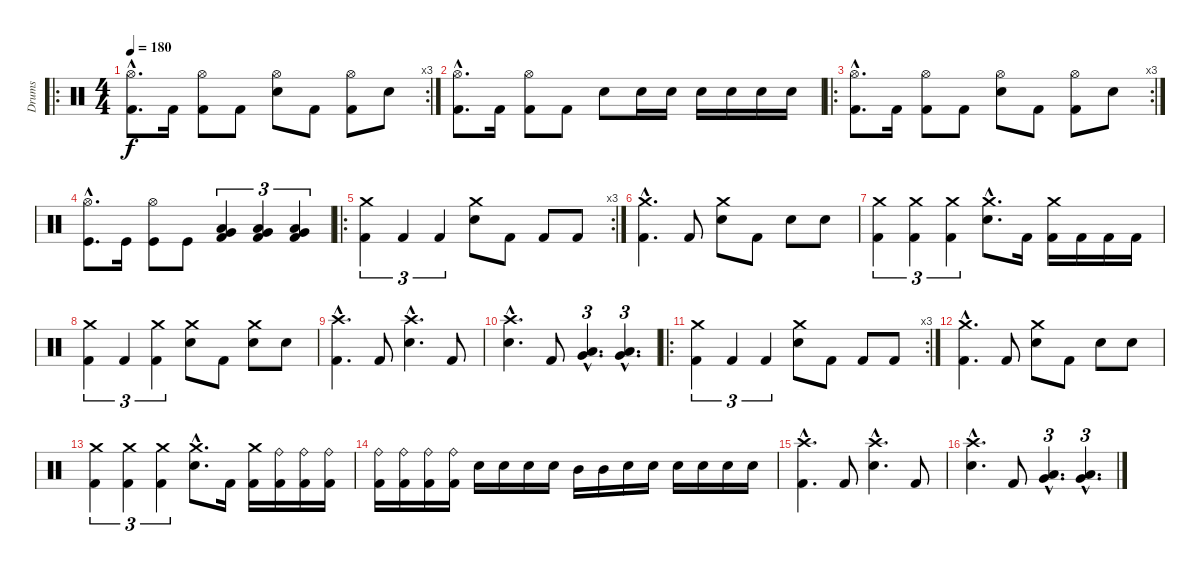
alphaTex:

\track ("Drums" "Drums") {instrument percussion}
\staff {score}
\articulation defaults
\ro
\rc 3
\ts (4 4)
\tempo 180
\clef neutral
\ks c
("Hi-Hat (open)"{hac} "Kick (hit) 2"{hac}).8{d dy f} "Kick (hit) 2".16 ("Hi-Hat (open)" "Kick (hit) 2").8 "Kick (hit) 2".8 ("Hi-Hat (open)" "Electric Snare (hit)").8 "Kick (hit) 2".8 ("Hi-Hat (open)" "Kick (hit) 2").8 "Electric Snare (hit)".8 |
("Hi-Hat (open)"{hac} "Kick (hit) 2"{hac}).8{d} "Kick (hit) 2".16 ("Hi-Hat (open)" "Kick (hit) 2").8 "Kick (hit) 2".8 "Electric Snare (hit)".8 "Electric Snare (hit)".16 "Electric Snare (hit)".16 "Electric Snare (hit)".16 "Electric Snare (hit)".16 "Electric Snare (hit)".16 "Electric Snare (hit)".16 |
\ro
\rc 3
("Hi-Hat (open)"{hac} "Kick (hit) 2"{hac}).8{d} "Kick (hit) 2".16 ("Hi-Hat (open)" "Kick (hit) 2").8 "Kick (hit) 2".8 ("Hi-Hat (open)" "Electric Snare (hit)").8 "Kick (hit) 2".8 ("Hi-Hat (open)" "Kick (hit) 2").8 "Electric Snare (hit)".8 |
("Hi-Hat (open)"{hac} "Kick (hit)"{hac}).8{d} "Kick (hit)".16 ("Hi-Hat (open)" "Kick (hit)").8 "Kick (hit)".8 ("Kick (hit) 2" "Very Low Tom (hit)" "Low Floor Tom (hit)").4{tu (3 2)} ("Kick (hit) 2" "Very Low Tom (hit)" "Low Floor Tom (hit)").4{tu (3 2)} ("Kick (hit) 2" "Very Low Tom (hit)" "Low Floor Tom (hit)").4{tu (3 2)} |
\ro
\rc 3
("Crash medium (hit)" "Kick (hit) 2").4{tu (3 2)} "Kick (hit) 2".4{tu (3 2)} "Kick (hit) 2".4{tu (3 2)} ("Crash medium (hit)" "Electric Snare (hit)").8 "Kick (hit) 2".8 "Kick (hit) 2".8 "Kick (hit) 2".8 |
("Crash medium (hit)"{hac} "Kick (hit) 2"{hac}).4{d} "Kick (hit) 2".8 ("Crash medium (hit)" "Electric Snare (hit)").8 "Kick (hit) 2".8 "Electric Snare (hit)".8 "Electric Snare (hit)".8 |
("Crash medium (hit)" "Kick (hit) 2").4{tu (3 2)} ("Crash medium (hit)" "Kick (hit) 2").4{tu (3 2)} ("Crash medium (hit)" "Kick (hit) 2").4{tu (3 2)} ("Crash medium (hit)"{hac} "Electric Snare (hit)"{hac}).8{d} "Kick (hit) 2".16 ("Crash medium (hit)" "Kick (hit) 2").16 "Kick (hit) 2".16 "Kick (hit) 2".16 "Kick (hit) 2".16 |
("Crash medium (hit)" "Kick (hit) 2").4{tu (3 2)} "Kick (hit) 2".4{tu (3 2)} ("Crash medium (hit)" "Kick (hit) 2").4{tu (3 2)} ("Crash medium (hit)" "Electric Snare (hit)").8 "Kick (hit) 2".8 ("Crash medium (hit)" "Electric Snare (hit)").8 "Electric Snare (hit)".8 |
("Crash high (hit)"{hac} "Kick (hit) 2"{hac}).4{d} "Kick (hit) 2".8 ("Crash high (hit)"{hac} "Electric Snare (hit)"{hac}).4{d} "Kick (hit) 2".8 |
("Crash high (hit)"{hac} "Electric Snare (hit)"{hac}).4{d} "Kick (hit) 2".8 ("Very Low Tom (hit)"{hac} "Low Floor Tom (hit)"{hac}).4{d tu (3 2)} ("Very Low Tom (hit)"{hac} "Low Floor Tom (hit)"{hac}).4{d tu (3 2)} |
\ro
\rc 3
("Crash medium (hit)" "Kick (hit) 2").4{tu (3 2)} "Kick (hit) 2".4{tu (3 2)} "Kick (hit) 2".4{tu (3 2)} ("Crash medium (hit)" "Electric Snare (hit)").8 "Kick (hit) 2".8 "Kick (hit) 2".8 "Kick (hit) 2".8 |
("Crash medium (hit)"{hac} "Kick (hit) 2"{hac}).4{d} "Kick (hit) 2".8 ("Crash medium (hit)" "Electric Snare (hit)").8 "Kick (hit) 2".8 "Electric Snare (hit)".8 "Electric Snare (hit)".8 |
("Crash medium (hit)" "Kick (hit) 2").4{tu (3 2)} ("Crash medium (hit)" "Kick (hit) 2").4{tu (3 2)} ("Crash medium (hit)" "Kick (hit) 2").4{tu (3 2)} ("Crash medium (hit)"{hac} "Electric Snare (hit)"{hac}).8{d} "Kick (hit) 2".16 ("Crash medium (hit)" "Kick (hit) 2").16 ("Ride (bell)" "Kick (hit) 2").16 ("Ride (bell)" "Kick (hit) 2").16 ("Ride (bell)" "Kick (hit) 2").16 |
("Ride (bell)" "Kick (hit) 2").16 ("Ride (bell)" "Kick (hit) 2").16 ("Ride (bell)" "Kick (hit) 2").16 ("Ride (bell)" "Kick (hit) 2").16 "Electric Snare (hit)".16 "Electric Snare (hit)".16 "Electric Snare (hit)".16 "Electric Snare (hit)".16 "Mid Tom (hit)".16 "Mid Tom (hit)".16 "Electric Snare (hit)".16 "Electric Snare (hit)".16 "Electric Snare (hit)".16 "Electric Snare (hit)".16 "Electric Snare (hit)".16 "Electric Snare (hit)".16 |
("Crash high (hit)"{hac} "Kick (hit) 2"{hac}).4{d} "Kick (hit) 2".8 ("Crash high (hit)"{hac} "Electric Snare (hit)"{hac}).4{d} "Kick (hit) 2".8 |
("Crash high (hit)"{hac} "Electric Snare (hit)"{hac}).4{d} "Kick (hit) 2".8 ("Very Low Tom (hit)"{hac} "Low Floor Tom (hit)"{hac}).4{d tu (3 2)} ("Very Low Tom (hit)"{hac} "Low Floor Tom (hit)"{hac}).4{d tu (3 2)}
